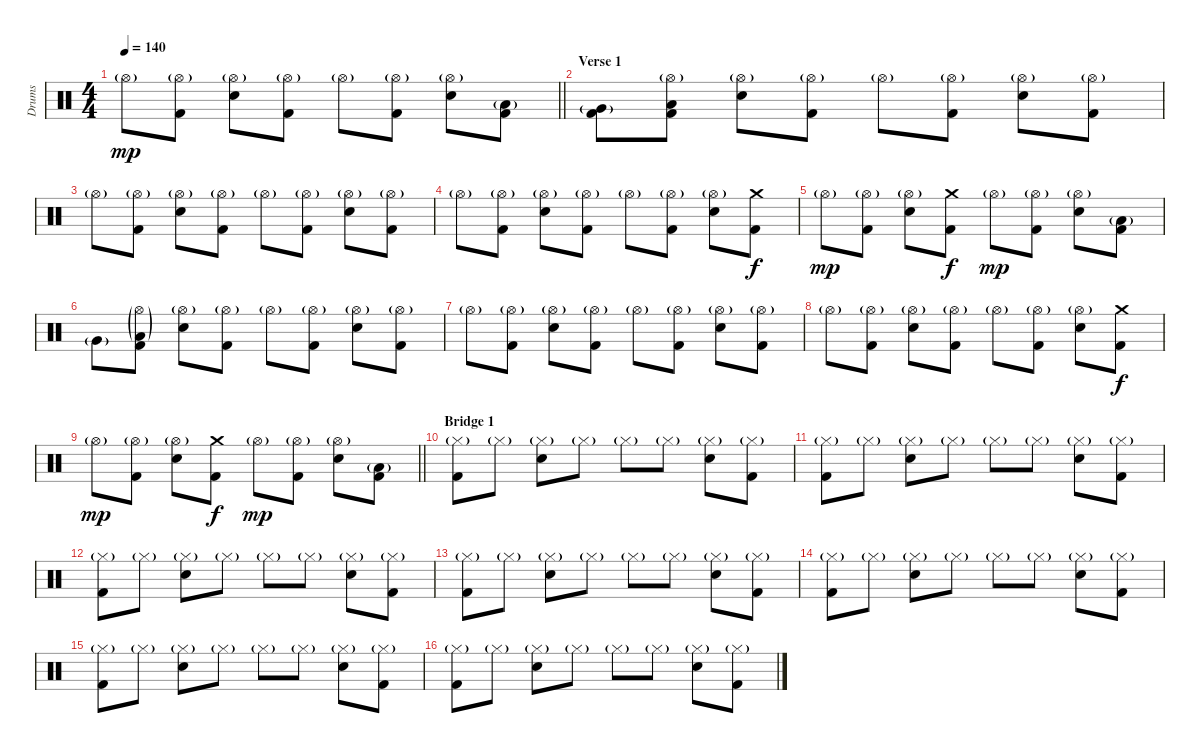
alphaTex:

\track ("Drums" "Drums") {instrument percussion}
\staff {score}
\articulation defaults
\ts (4 4)
\tempo 140
\clef neutral
\barLineRight lightlight
\ks c "Hi-Hat (open)"{g}.8{dy mp}
("Hi-Hat (open)"{g} "Kick (hit) 2").8 ("Hi-Hat (open)"{g} "Electric Snare (hit)").8 ("Hi-Hat (open)"{g} "Kick (hit) 2").8 "Hi-Hat (open)"{g}.8 ("Hi-Hat (open)"{g} "Kick (hit) 2").8 ("Hi-Hat (open)"{g} "Electric Snare (hit)").8 ("Low Tom (hit)"{g} "Kick (hit) 2").8 |
\section ("" "Verse 1")
("Very Low Tom (hit)"{g} "Kick (hit) 2").8 ("Hi-Hat (open)"{g} "Low Floor Tom (hit)" "Kick (hit) 2").8 ("Hi-Hat (open)"{g} "Electric Snare (hit)").8 ("Hi-Hat (open)"{g} "Kick (hit) 2").8 "Hi-Hat (open)"{g}.8 ("Hi-Hat (open)"{g} "Kick (hit) 2").8 ("Hi-Hat (open)"{g} "Electric Snare (hit)").8 ("Hi-Hat (open)"{g} "Kick (hit) 2").8 |
"Hi-Hat (open)"{g}.8 ("Hi-Hat (open)"{g} "Kick (hit) 2").8 ("Hi-Hat (open)"{g} "Electric Snare (hit)").8 ("Hi-Hat (open)"{g} "Kick (hit) 2").8 "Hi-Hat (open)"{g}.8 ("Hi-Hat (open)"{g} "Kick (hit) 2").8 ("Hi-Hat (open)"{g} "Electric Snare (hit)").8 ("Hi-Hat (open)"{g} "Kick (hit) 2").8 |
"Hi-Hat (open)"{g}.8 ("Hi-Hat (open)"{g} "Kick (hit) 2").8 ("Hi-Hat (open)"{g} "Electric Snare (hit)").8 ("Hi-Hat (open)"{g} "Kick (hit) 2").8 "Hi-Hat (open)"{g}.8 ("Hi-Hat (open)"{g} "Kick (hit) 2").8 ("Hi-Hat (open)"{g} "Electric Snare (hit)").8 ("Crash medium (hit)" "Kick (hit) 2").8{dy f} |
"Hi-Hat (open)"{g}.8{dy mp} ("Hi-Hat (open)"{g} "Kick (hit) 2").8 ("Hi-Hat (open)"{g} "Electric Snare (hit)").8 ("Crash medium (hit)" "Kick (hit) 2").8{dy f} "Hi-Hat (open)"{g}.8{dy mp} ("Hi-Hat (open)"{g} "Kick (hit) 2").8 ("Hi-Hat (open)"{g} "Electric Snare (hit)").8 ("Low Tom (hit)"{g} "Kick (hit) 2").8 |
"Very Low Tom (hit)"{g}.8 ("Hi-Hat (open)"{g} "Low Floor Tom (hit)"{g} "Kick (hit) 2").8 ("Hi-Hat (open)"{g} "Electric Snare (hit)").8 ("Hi-Hat (open)"{g} "Kick (hit) 2").8 "Hi-Hat (open)"{g}.8 ("Hi-Hat (open)"{g} "Kick (hit) 2").8 ("Hi-Hat (open)"{g} "Electric Snare (hit)").8 ("Hi-Hat (open)"{g} "Kick (hit) 2").8 |
"Hi-Hat (open)"{g}.8 ("Hi-Hat (open)"{g} "Kick (hit) 2").8 ("Hi-Hat (open)"{g} "Electric Snare (hit)").8 ("Hi-Hat (open)"{g} "Kick (hit) 2").8 "Hi-Hat (open)"{g}.8 ("Hi-Hat (open)"{g} "Kick (hit) 2").8 ("Hi-Hat (open)"{g} "Electric Snare (hit)").8 ("Hi-Hat (open)"{g} "Kick (hit) 2").8 |
"Hi-Hat (open)"{g}.8 ("Hi-Hat (open)"{g} "Kick (hit) 2").8 ("Hi-Hat (open)"{g} "Electric Snare (hit)").8 ("Hi-Hat (open)"{g} "Kick (hit) 2").8 "Hi-Hat (open)"{g}.8 ("Hi-Hat (open)"{g} "Kick (hit) 2").8 ("Hi-Hat (open)"{g} "Electric Snare (hit)").8 ("Crash medium (hit)" "Kick (hit) 2").8{dy f} |
\barLineRight lightlight "Hi-Hat (open)"{g}.8{dy mp}
("Hi-Hat (open)"{g} "Kick (hit) 2").8 ("Hi-Hat (open)"{g} "Electric Snare (hit)").8 ("Crash medium (hit)" "Kick (hit) 2").8{dy f} "Hi-Hat (open)"{g}.8{dy mp} ("Hi-Hat (open)"{g} "Kick (hit) 2").8 ("Hi-Hat (open)"{g} "Electric Snare (hit)").8 ("Low Tom (hit)"{g} "Kick (hit) 2").8 |
\section ("" "Bridge 1")
("Hi-Hat (closed)"{g} "Kick (hit) 2").8 "Hi-Hat (closed)"{g}.8 ("Hi-Hat (closed)"{g} "Electric Snare (hit)").8 "Hi-Hat (closed)"{g}.8 "Hi-Hat (closed)"{g}.8 "Hi-Hat (closed)"{g}.8 ("Hi-Hat (closed)"{g} "Electric Snare (hit)").8 ("Hi-Hat (closed)"{g} "Kick (hit) 2").8 |
("Hi-Hat (closed)"{g} "Kick (hit) 2").8 "Hi-Hat (closed)"{g}.8 ("Hi-Hat (closed)"{g} "Electric Snare (hit)").8 "Hi-Hat (closed)"{g}.8 "Hi-Hat (closed)"{g}.8 "Hi-Hat (closed)"{g}.8 ("Hi-Hat (closed)"{g} "Electric Snare (hit)").8 ("Hi-Hat (closed)"{g} "Kick (hit) 2").8 |
("Hi-Hat (closed)"{g} "Kick (hit) 2").8 "Hi-Hat (closed)"{g}.8 ("Hi-Hat (closed)"{g} "Electric Snare (hit)").8 "Hi-Hat (closed)"{g}.8 "Hi-Hat (closed)"{g}.8 "Hi-Hat (closed)"{g}.8 ("Hi-Hat (closed)"{g} "Electric Snare (hit)").8 ("Hi-Hat (closed)"{g} "Kick (hit) 2").8 |
("Hi-Hat (closed)"{g} "Kick (hit) 2").8 "Hi-Hat (closed)"{g}.8 ("Hi-Hat (closed)"{g} "Electric Snare (hit)").8 "Hi-Hat (closed)"{g}.8 "Hi-Hat (closed)"{g}.8 "Hi-Hat (closed)"{g}.8 ("Hi-Hat (closed)"{g} "Electric Snare (hit)").8 ("Hi-Hat (closed)"{g} "Kick (hit) 2").8 |
("Hi-Hat (closed)"{g} "Kick (hit) 2").8 "Hi-Hat (closed)"{g}.8 ("Hi-Hat (closed)"{g} "Electric Snare (hit)").8 "Hi-Hat (closed)"{g}.8 "Hi-Hat (closed)"{g}.8 "Hi-Hat (closed)"{g}.8 ("Hi-Hat (closed)"{g} "Electric Snare (hit)").8 ("Hi-Hat (closed)"{g} "Kick (hit) 2").8 |
("Hi-Hat (closed)"{g} "Kick (hit) 2").8 "Hi-Hat (closed)"{g}.8 ("Hi-Hat (closed)"{g} "Electric Snare (hit)").8 "Hi-Hat (closed)"{g}.8 "Hi-Hat (closed)"{g}.8 "Hi-Hat (closed)"{g}.8 ("Hi-Hat (closed)"{g} "Electric Snare (hit)").8 ("Hi-Hat (closed)"{g} "Kick (hit) 2").8 |
("Hi-Hat (closed)"{g} "Kick (hit) 2").8 "Hi-Hat (closed)"{g}.8 ("Hi-Hat (closed)"{g} "Electric Snare (hit)").8 "Hi-Hat (closed)"{g}.8 "Hi-Hat (closed)"{g}.8 "Hi-Hat (closed)"{g}.8 ("Hi-Hat (closed)"{g} "Electric Snare (hit)").8 ("Hi-Hat (closed)"{g} "Kick (hit) 2").8
